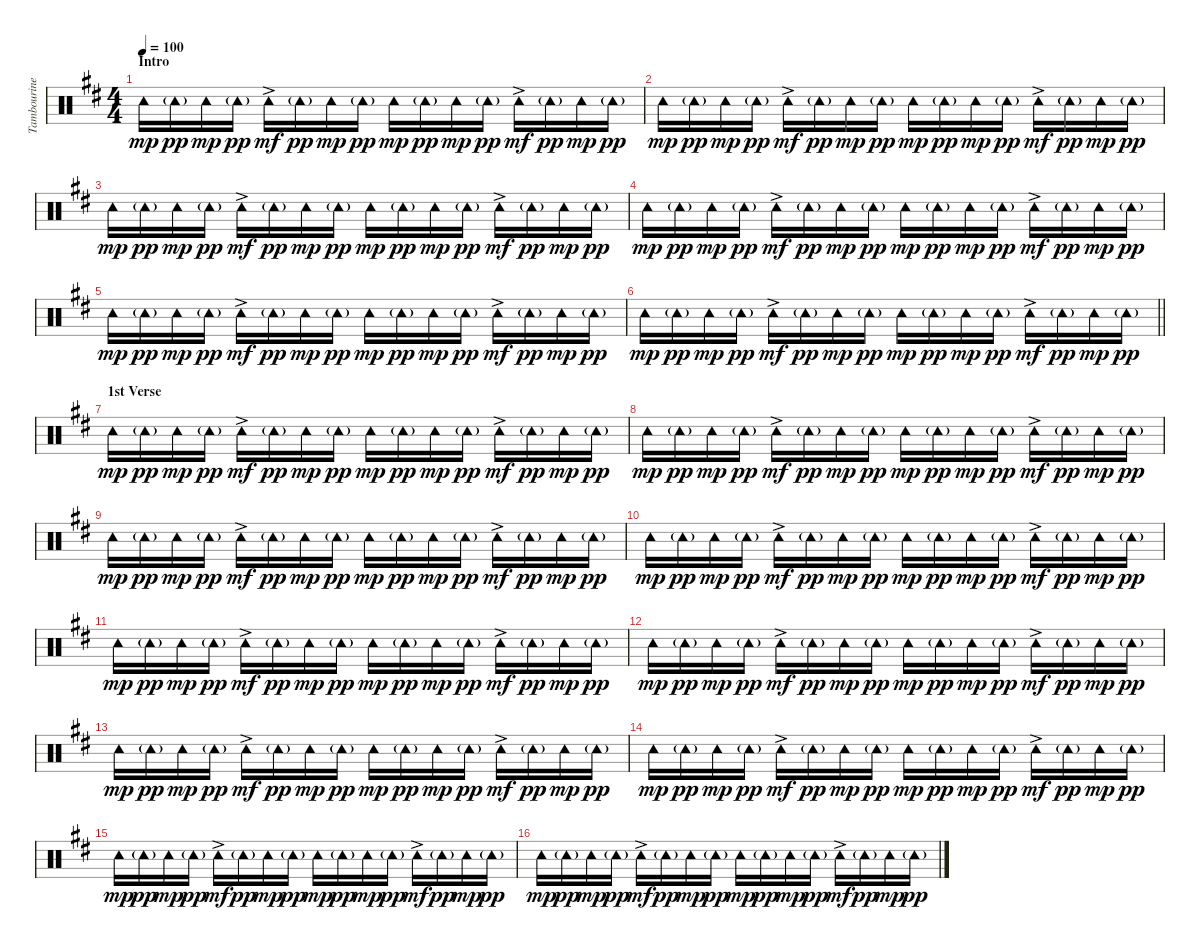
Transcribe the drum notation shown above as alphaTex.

\track ("Tambourine" "Tambourine") {instrument percussion}
\staff {score}
\articulation defaults
\ts (4 4)
\section ("" "Intro")
\tempo 100
\clef neutral
\ks d "Tambourine (hit)".16{dy mp} "Tambourine (hit)"{g}.16{dy pp} "Tambourine (hit)".16{dy mp} "Tambourine (hit)"{g}.16{dy pp} "Tambourine (hit)"{ac}.16{dy mf} "Tambourine (hit)"{g}.16{dy pp} "Tambourine (hit)".16{dy mp} "Tambourine (hit)"{g}.16{dy pp} "Tambourine (hit)".16{dy mp} "Tambourine (hit)"{g}.16{dy pp} "Tambourine (hit)".16{dy mp} "Tambourine (hit)"{g}.16{dy pp} "Tambourine (hit)"{ac}.16{dy mf} "Tambourine (hit)"{g}.16{dy pp} "Tambourine (hit)".16{dy mp} "Tambourine (hit)"{g}.16{dy pp}
|
"Tambourine (hit)".16{dy mp} "Tambourine (hit)"{g}.16{dy pp} "Tambourine (hit)".16{dy mp} "Tambourine (hit)"{g}.16{dy pp} "Tambourine (hit)"{ac}.16{dy mf} "Tambourine (hit)"{g}.16{dy pp} "Tambourine (hit)".16{dy mp} "Tambourine (hit)"{g}.16{dy pp} "Tambourine (hit)".16{dy mp} "Tambourine (hit)"{g}.16{dy pp} "Tambourine (hit)".16{dy mp} "Tambourine (hit)"{g}.16{dy pp} "Tambourine (hit)"{ac}.16{dy mf} "Tambourine (hit)"{g}.16{dy pp} "Tambourine (hit)".16{dy mp} "Tambourine (hit)"{g}.16{dy pp} |
"Tambourine (hit)".16{dy mp} "Tambourine (hit)"{g}.16{dy pp} "Tambourine (hit)".16{dy mp} "Tambourine (hit)"{g}.16{dy pp} "Tambourine (hit)"{ac}.16{dy mf} "Tambourine (hit)"{g}.16{dy pp} "Tambourine (hit)".16{dy mp} "Tambourine (hit)"{g}.16{dy pp} "Tambourine (hit)".16{dy mp} "Tambourine (hit)"{g}.16{dy pp} "Tambourine (hit)".16{dy mp} "Tambourine (hit)"{g}.16{dy pp} "Tambourine (hit)"{ac}.16{dy mf} "Tambourine (hit)"{g}.16{dy pp} "Tambourine (hit)".16{dy mp} "Tambourine (hit)"{g}.16{dy pp} |
"Tambourine (hit)".16{dy mp} "Tambourine (hit)"{g}.16{dy pp} "Tambourine (hit)".16{dy mp} "Tambourine (hit)"{g}.16{dy pp} "Tambourine (hit)"{ac}.16{dy mf} "Tambourine (hit)"{g}.16{dy pp} "Tambourine (hit)".16{dy mp} "Tambourine (hit)"{g}.16{dy pp} "Tambourine (hit)".16{dy mp} "Tambourine (hit)"{g}.16{dy pp} "Tambourine (hit)".16{dy mp} "Tambourine (hit)"{g}.16{dy pp} "Tambourine (hit)"{ac}.16{dy mf} "Tambourine (hit)"{g}.16{dy pp} "Tambourine (hit)".16{dy mp} "Tambourine (hit)"{g}.16{dy pp} |
"Tambourine (hit)".16{dy mp} "Tambourine (hit)"{g}.16{dy pp} "Tambourine (hit)".16{dy mp} "Tambourine (hit)"{g}.16{dy pp} "Tambourine (hit)"{ac}.16{dy mf} "Tambourine (hit)"{g}.16{dy pp} "Tambourine (hit)".16{dy mp} "Tambourine (hit)"{g}.16{dy pp} "Tambourine (hit)".16{dy mp} "Tambourine (hit)"{g}.16{dy pp} "Tambourine (hit)".16{dy mp} "Tambourine (hit)"{g}.16{dy pp} "Tambourine (hit)"{ac}.16{dy mf} "Tambourine (hit)"{g}.16{dy pp} "Tambourine (hit)".16{dy mp} "Tambourine (hit)"{g}.16{dy pp} |
\barLineRight lightlight "Tambourine (hit)".16{dy mp} "Tambourine (hit)"{g}.16{dy pp} "Tambourine (hit)".16{dy mp} "Tambourine (hit)"{g}.16{dy pp} "Tambourine (hit)"{ac}.16{dy mf} "Tambourine (hit)"{g}.16{dy pp} "Tambourine (hit)".16{dy mp} "Tambourine (hit)"{g}.16{dy pp} "Tambourine (hit)".16{dy mp} "Tambourine (hit)"{g}.16{dy pp} "Tambourine (hit)".16{dy mp} "Tambourine (hit)"{g}.16{dy pp} "Tambourine (hit)"{ac}.16{dy mf} "Tambourine (hit)"{g}.16{dy pp} "Tambourine (hit)".16{dy mp} "Tambourine (hit)"{g}.16{dy pp}
|
\section ("" "1st Verse")
"Tambourine (hit)".16{dy mp} "Tambourine (hit)"{g}.16{dy pp} "Tambourine (hit)".16{dy mp} "Tambourine (hit)"{g}.16{dy pp} "Tambourine (hit)"{ac}.16{dy mf} "Tambourine (hit)"{g}.16{dy pp} "Tambourine (hit)".16{dy mp} "Tambourine (hit)"{g}.16{dy pp} "Tambourine (hit)".16{dy mp} "Tambourine (hit)"{g}.16{dy pp} "Tambourine (hit)".16{dy mp} "Tambourine (hit)"{g}.16{dy pp} "Tambourine (hit)"{ac}.16{dy mf} "Tambourine (hit)"{g}.16{dy pp} "Tambourine (hit)".16{dy mp} "Tambourine (hit)"{g}.16{dy pp} |
"Tambourine (hit)".16{dy mp} "Tambourine (hit)"{g}.16{dy pp} "Tambourine (hit)".16{dy mp} "Tambourine (hit)"{g}.16{dy pp} "Tambourine (hit)"{ac}.16{dy mf} "Tambourine (hit)"{g}.16{dy pp} "Tambourine (hit)".16{dy mp} "Tambourine (hit)"{g}.16{dy pp} "Tambourine (hit)".16{dy mp} "Tambourine (hit)"{g}.16{dy pp} "Tambourine (hit)".16{dy mp} "Tambourine (hit)"{g}.16{dy pp} "Tambourine (hit)"{ac}.16{dy mf} "Tambourine (hit)"{g}.16{dy pp} "Tambourine (hit)".16{dy mp} "Tambourine (hit)"{g}.16{dy pp} |
"Tambourine (hit)".16{dy mp} "Tambourine (hit)"{g}.16{dy pp} "Tambourine (hit)".16{dy mp} "Tambourine (hit)"{g}.16{dy pp} "Tambourine (hit)"{ac}.16{dy mf} "Tambourine (hit)"{g}.16{dy pp} "Tambourine (hit)".16{dy mp} "Tambourine (hit)"{g}.16{dy pp} "Tambourine (hit)".16{dy mp} "Tambourine (hit)"{g}.16{dy pp} "Tambourine (hit)".16{dy mp} "Tambourine (hit)"{g}.16{dy pp} "Tambourine (hit)"{ac}.16{dy mf} "Tambourine (hit)"{g}.16{dy pp} "Tambourine (hit)".16{dy mp} "Tambourine (hit)"{g}.16{dy pp} |
"Tambourine (hit)".16{dy mp} "Tambourine (hit)"{g}.16{dy pp} "Tambourine (hit)".16{dy mp} "Tambourine (hit)"{g}.16{dy pp} "Tambourine (hit)"{ac}.16{dy mf} "Tambourine (hit)"{g}.16{dy pp} "Tambourine (hit)".16{dy mp} "Tambourine (hit)"{g}.16{dy pp} "Tambourine (hit)".16{dy mp} "Tambourine (hit)"{g}.16{dy pp} "Tambourine (hit)".16{dy mp} "Tambourine (hit)"{g}.16{dy pp} "Tambourine (hit)"{ac}.16{dy mf} "Tambourine (hit)"{g}.16{dy pp} "Tambourine (hit)".16{dy mp} "Tambourine (hit)"{g}.16{dy pp} |
"Tambourine (hit)".16{dy mp} "Tambourine (hit)"{g}.16{dy pp} "Tambourine (hit)".16{dy mp} "Tambourine (hit)"{g}.16{dy pp} "Tambourine (hit)"{ac}.16{dy mf} "Tambourine (hit)"{g}.16{dy pp} "Tambourine (hit)".16{dy mp} "Tambourine (hit)"{g}.16{dy pp} "Tambourine (hit)".16{dy mp} "Tambourine (hit)"{g}.16{dy pp} "Tambourine (hit)".16{dy mp} "Tambourine (hit)"{g}.16{dy pp} "Tambourine (hit)"{ac}.16{dy mf} "Tambourine (hit)"{g}.16{dy pp} "Tambourine (hit)".16{dy mp} "Tambourine (hit)"{g}.16{dy pp} |
"Tambourine (hit)".16{dy mp} "Tambourine (hit)"{g}.16{dy pp} "Tambourine (hit)".16{dy mp} "Tambourine (hit)"{g}.16{dy pp} "Tambourine (hit)"{ac}.16{dy mf} "Tambourine (hit)"{g}.16{dy pp} "Tambourine (hit)".16{dy mp} "Tambourine (hit)"{g}.16{dy pp} "Tambourine (hit)".16{dy mp} "Tambourine (hit)"{g}.16{dy pp} "Tambourine (hit)".16{dy mp} "Tambourine (hit)"{g}.16{dy pp} "Tambourine (hit)"{ac}.16{dy mf} "Tambourine (hit)"{g}.16{dy pp} "Tambourine (hit)".16{dy mp} "Tambourine (hit)"{g}.16{dy pp} |
"Tambourine (hit)".16{dy mp} "Tambourine (hit)"{g}.16{dy pp} "Tambourine (hit)".16{dy mp} "Tambourine (hit)"{g}.16{dy pp} "Tambourine (hit)"{ac}.16{dy mf} "Tambourine (hit)"{g}.16{dy pp} "Tambourine (hit)".16{dy mp} "Tambourine (hit)"{g}.16{dy pp} "Tambourine (hit)".16{dy mp} "Tambourine (hit)"{g}.16{dy pp} "Tambourine (hit)".16{dy mp} "Tambourine (hit)"{g}.16{dy pp} "Tambourine (hit)"{ac}.16{dy mf} "Tambourine (hit)"{g}.16{dy pp} "Tambourine (hit)".16{dy mp} "Tambourine (hit)"{g}.16{dy pp} |
"Tambourine (hit)".16{dy mp} "Tambourine (hit)"{g}.16{dy pp} "Tambourine (hit)".16{dy mp} "Tambourine (hit)"{g}.16{dy pp} "Tambourine (hit)"{ac}.16{dy mf} "Tambourine (hit)"{g}.16{dy pp} "Tambourine (hit)".16{dy mp} "Tambourine (hit)"{g}.16{dy pp} "Tambourine (hit)".16{dy mp} "Tambourine (hit)"{g}.16{dy pp} "Tambourine (hit)".16{dy mp} "Tambourine (hit)"{g}.16{dy pp} "Tambourine (hit)"{ac}.16{dy mf} "Tambourine (hit)"{g}.16{dy pp} "Tambourine (hit)".16{dy mp} "Tambourine (hit)"{g}.16{dy pp} |
"Tambourine (hit)".16{dy mp} "Tambourine (hit)"{g}.16{dy pp} "Tambourine (hit)".16{dy mp} "Tambourine (hit)"{g}.16{dy pp} "Tambourine (hit)"{ac}.16{dy mf} "Tambourine (hit)"{g}.16{dy pp} "Tambourine (hit)".16{dy mp} "Tambourine (hit)"{g}.16{dy pp} "Tambourine (hit)".16{dy mp} "Tambourine (hit)"{g}.16{dy pp} "Tambourine (hit)".16{dy mp} "Tambourine (hit)"{g}.16{dy pp} "Tambourine (hit)"{ac}.16{dy mf} "Tambourine (hit)"{g}.16{dy pp} "Tambourine (hit)".16{dy mp} "Tambourine (hit)"{g}.16{dy pp} |
"Tambourine (hit)".16{dy mp} "Tambourine (hit)"{g}.16{dy pp} "Tambourine (hit)".16{dy mp} "Tambourine (hit)"{g}.16{dy pp} "Tambourine (hit)"{ac}.16{dy mf} "Tambourine (hit)"{g}.16{dy pp} "Tambourine (hit)".16{dy mp} "Tambourine (hit)"{g}.16{dy pp} "Tambourine (hit)".16{dy mp} "Tambourine (hit)"{g}.16{dy pp} "Tambourine (hit)".16{dy mp} "Tambourine (hit)"{g}.16{dy pp} "Tambourine (hit)"{ac}.16{dy mf} "Tambourine (hit)"{g}.16{dy pp} "Tambourine (hit)".16{dy mp} "Tambourine (hit)"{g}.16{dy pp}
